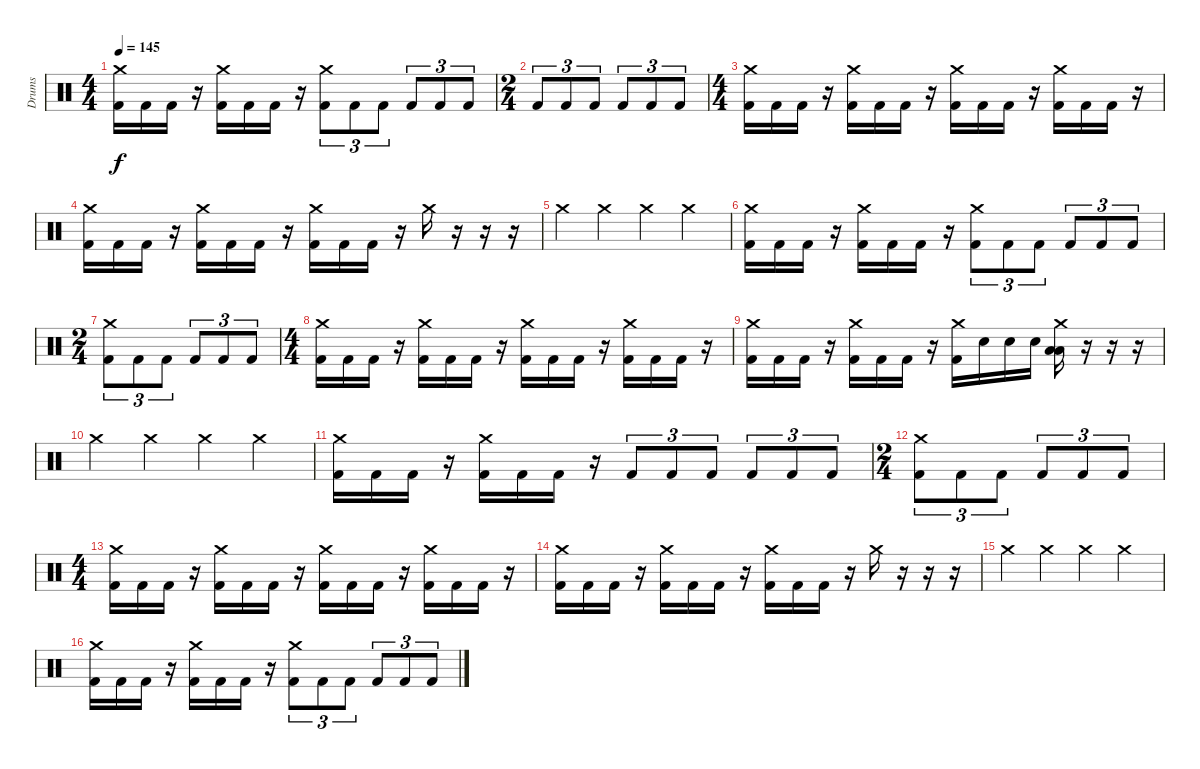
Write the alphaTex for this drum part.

\track ("Drums" "Drums") {instrument percussion}
\staff {score}
\articulation defaults
\ts (4 4)
\tempo 145
\clef neutral
\ks c
("Crash medium (hit)" "Kick (hit) 2").16{dy f} "Kick (hit) 2".16 "Kick (hit) 2".16 r.16 ("Crash medium (hit)" "Kick (hit) 2").16 "Kick (hit) 2".16 "Kick (hit) 2".16 r.16 ("Crash medium (hit)" "Kick (hit) 2").8{tu (3 2)} "Kick (hit) 2".8{tu (3 2)} "Kick (hit) 2".8{tu (3 2)} "Kick (hit) 2".8{tu (3 2)} "Kick (hit) 2".8{tu (3 2)} "Kick (hit) 2".8{tu (3 2)} |
\ts (2 4)
"Kick (hit) 2".8{tu (3 2)} "Kick (hit) 2".8{tu (3 2)} "Kick (hit) 2".8{tu (3 2)} "Kick (hit) 2".8{tu (3 2)} "Kick (hit) 2".8{tu (3 2)} "Kick (hit) 2".8{tu (3 2)} |
\ts (4 4)
("Crash medium (hit)" "Kick (hit) 2").16 "Kick (hit) 2".16 "Kick (hit) 2".16 r.16 ("Crash medium (hit)" "Kick (hit) 2").16 "Kick (hit) 2".16 "Kick (hit) 2".16 r.16 ("Crash medium (hit)" "Kick (hit) 2").16 "Kick (hit) 2".16 "Kick (hit) 2".16 r.16 ("Crash medium (hit)" "Kick (hit) 2").16 "Kick (hit) 2".16 "Kick (hit) 2".16 r.16 |
("Crash medium (hit)" "Kick (hit) 2").16 "Kick (hit) 2".16 "Kick (hit) 2".16 r.16 ("Crash medium (hit)" "Kick (hit) 2").16 "Kick (hit) 2".16 "Kick (hit) 2".16 r.16 ("Crash medium (hit)" "Kick (hit) 2").16 "Kick (hit) 2".16 "Kick (hit) 2".16 r.16 "Crash medium (hit)".16 r.16 r.16 r.16 |
"Crash medium (hit)".4 "Crash medium (hit)".4 "Crash medium (hit)".4 "Crash medium (hit)".4 |
("Crash medium (hit)" "Kick (hit) 2").16 "Kick (hit) 2".16 "Kick (hit) 2".16 r.16 ("Crash medium (hit)" "Kick (hit) 2").16 "Kick (hit) 2".16 "Kick (hit) 2".16 r.16 ("Crash medium (hit)" "Kick (hit) 2").8{tu (3 2)} "Kick (hit) 2".8{tu (3 2)} "Kick (hit) 2".8{tu (3 2)} "Kick (hit) 2".8{tu (3 2)} "Kick (hit) 2".8{tu (3 2)} "Kick (hit) 2".8{tu (3 2)} |
\ts (2 4)
("Crash medium (hit)" "Kick (hit) 2").8{tu (3 2)} "Kick (hit) 2".8{tu (3 2)} "Kick (hit) 2".8{tu (3 2)} "Kick (hit) 2".8{tu (3 2)} "Kick (hit) 2".8{tu (3 2)} "Kick (hit) 2".8{tu (3 2)} |
\ts (4 4)
("Crash medium (hit)" "Kick (hit) 2").16 "Kick (hit) 2".16 "Kick (hit) 2".16 r.16 ("Crash medium (hit)" "Kick (hit) 2").16 "Kick (hit) 2".16 "Kick (hit) 2".16 r.16 ("Crash medium (hit)" "Kick (hit) 2").16 "Kick (hit) 2".16 "Kick (hit) 2".16 r.16 ("Crash medium (hit)" "Kick (hit) 2").16 "Kick (hit) 2".16 "Kick (hit) 2".16 r.16 |
("Crash medium (hit)" "Kick (hit) 2").16 "Kick (hit) 2".16 "Kick (hit) 2".16 r.16 ("Crash medium (hit)" "Kick (hit) 2").16 "Kick (hit) 2".16 "Kick (hit) 2".16 r.16 ("Crash medium (hit)" "Kick (hit) 2").16 "Snare (hit) 2".16 "Snare (hit) 2".16 "Snare (hit) 2".16 ("Crash medium (hit)" "Low Tom (hit)" "Low Floor Tom (hit)").16 r.16 r.16 r.16 |
"Crash medium (hit)".4 "Crash medium (hit)".4 "Crash medium (hit)".4 "Crash medium (hit)".4 |
("Crash medium (hit)" "Kick (hit) 2").16 "Kick (hit) 2".16 "Kick (hit) 2".16 r.16 ("Crash medium (hit)" "Kick (hit) 2").16 "Kick (hit) 2".16 "Kick (hit) 2".16 r.16 "Kick (hit) 2".8{tu (3 2)} "Kick (hit) 2".8{tu (3 2)} "Kick (hit) 2".8{tu (3 2)} "Kick (hit) 2".8{tu (3 2)} "Kick (hit) 2".8{tu (3 2)} "Kick (hit) 2".8{tu (3 2)} |
\ts (2 4)
("Crash medium (hit)" "Kick (hit) 2").8{tu (3 2)} "Kick (hit) 2".8{tu (3 2)} "Kick (hit) 2".8{tu (3 2)} "Kick (hit) 2".8{tu (3 2)} "Kick (hit) 2".8{tu (3 2)} "Kick (hit) 2".8{tu (3 2)} |
\ts (4 4)
("Crash medium (hit)" "Kick (hit) 2").16 "Kick (hit) 2".16 "Kick (hit) 2".16 r.16 ("Crash medium (hit)" "Kick (hit) 2").16 "Kick (hit) 2".16 "Kick (hit) 2".16 r.16 ("Crash medium (hit)" "Kick (hit) 2").16 "Kick (hit) 2".16 "Kick (hit) 2".16 r.16 ("Crash medium (hit)" "Kick (hit) 2").16 "Kick (hit) 2".16 "Kick (hit) 2".16 r.16 |
("Crash medium (hit)" "Kick (hit) 2").16 "Kick (hit) 2".16 "Kick (hit) 2".16 r.16 ("Crash medium (hit)" "Kick (hit) 2").16 "Kick (hit) 2".16 "Kick (hit) 2".16 r.16 ("Crash medium (hit)" "Kick (hit) 2").16 "Kick (hit) 2".16 "Kick (hit) 2".16 r.16 "Crash medium (hit)".16 r.16 r.16 r.16 |
"Crash medium (hit)".4 "Crash medium (hit)".4 "Crash medium (hit)".4 "Crash medium (hit)".4 |
("Crash medium (hit)" "Kick (hit) 2").16 "Kick (hit) 2".16 "Kick (hit) 2".16 r.16 ("Crash medium (hit)" "Kick (hit) 2").16 "Kick (hit) 2".16 "Kick (hit) 2".16 r.16 ("Crash medium (hit)" "Kick (hit) 2").8{tu (3 2)} "Kick (hit) 2".8{tu (3 2)} "Kick (hit) 2".8{tu (3 2)} "Kick (hit) 2".8{tu (3 2)} "Kick (hit) 2".8{tu (3 2)} "Kick (hit) 2".8{tu (3 2)}
